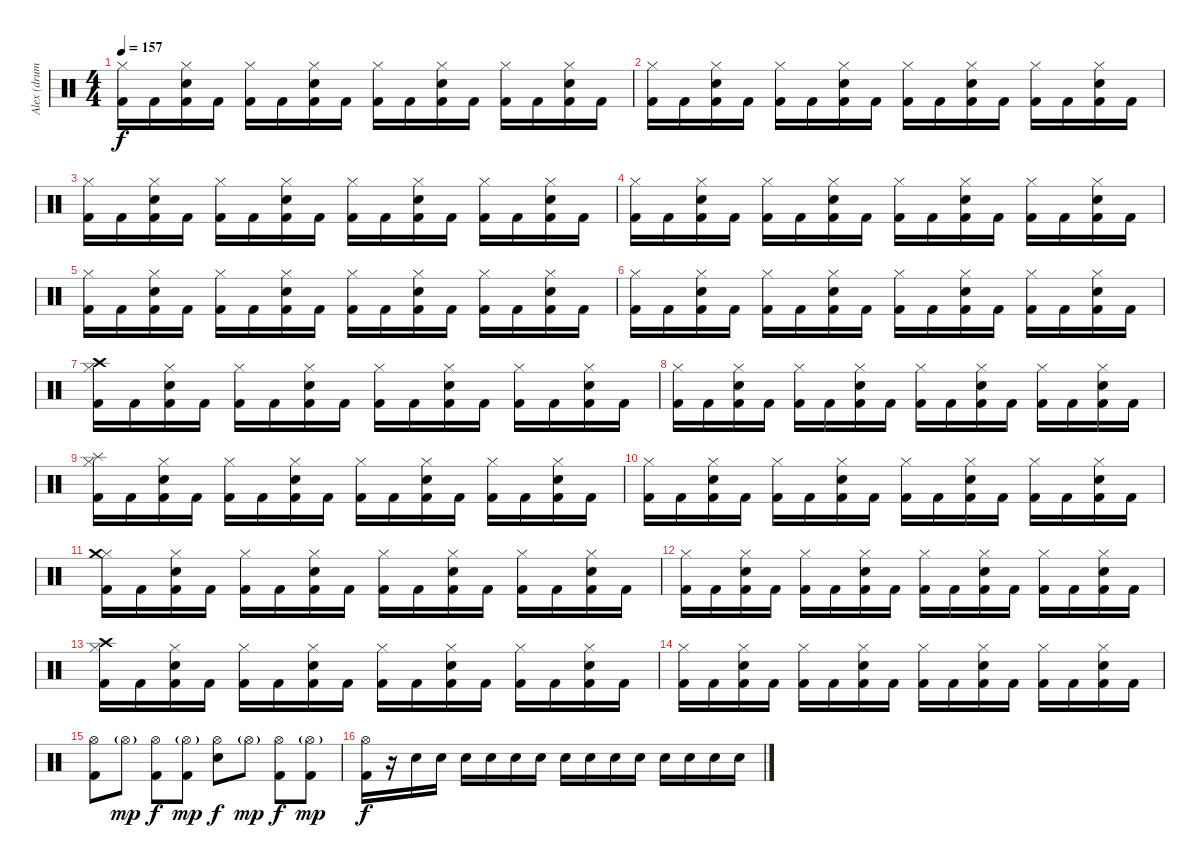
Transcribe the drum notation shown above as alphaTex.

\track ("Alex (drums)" "Alex (drum") {instrument percussion}
\staff {score}
\articulation defaults
\ts (4 4)
\tempo 157
\clef neutral
\ks c
("Hi-Hat (closed)" "Kick (hit) 2").16{dy f} "Kick (hit) 2".16 ("Hi-Hat (closed)" "Snare (hit) 2" "Kick (hit) 2").16 "Kick (hit) 2".16 ("Hi-Hat (closed)" "Kick (hit) 2").16 "Kick (hit) 2".16 ("Hi-Hat (closed)" "Snare (hit) 2" "Kick (hit) 2").16 "Kick (hit) 2".16 ("Hi-Hat (closed)" "Kick (hit) 2").16 "Kick (hit) 2".16 ("Hi-Hat (closed)" "Snare (hit) 2" "Kick (hit) 2").16 "Kick (hit) 2".16 ("Hi-Hat (closed)" "Kick (hit) 2").16 "Kick (hit) 2".16 ("Hi-Hat (closed)" "Snare (hit) 2" "Kick (hit) 2").16 "Kick (hit) 2".16 |
("Hi-Hat (closed)" "Kick (hit) 2").16 "Kick (hit) 2".16 ("Hi-Hat (closed)" "Snare (hit) 2" "Kick (hit) 2").16 "Kick (hit) 2".16 ("Hi-Hat (closed)" "Kick (hit) 2").16 "Kick (hit) 2".16 ("Hi-Hat (closed)" "Snare (hit) 2" "Kick (hit) 2").16 "Kick (hit) 2".16 ("Hi-Hat (closed)" "Kick (hit) 2").16 "Kick (hit) 2".16 ("Hi-Hat (closed)" "Snare (hit) 2" "Kick (hit) 2").16 "Kick (hit) 2".16 ("Hi-Hat (closed)" "Kick (hit) 2").16 "Kick (hit) 2".16 ("Hi-Hat (closed)" "Snare (hit) 2" "Kick (hit) 2").16 "Kick (hit) 2".16 |
("Hi-Hat (closed)" "Kick (hit) 2").16 "Kick (hit) 2".16 ("Hi-Hat (closed)" "Snare (hit) 2" "Kick (hit) 2").16 "Kick (hit) 2".16 ("Hi-Hat (closed)" "Kick (hit) 2").16 "Kick (hit) 2".16 ("Hi-Hat (closed)" "Snare (hit) 2" "Kick (hit) 2").16 "Kick (hit) 2".16 ("Hi-Hat (closed)" "Kick (hit) 2").16 "Kick (hit) 2".16 ("Hi-Hat (closed)" "Snare (hit) 2" "Kick (hit) 2").16 "Kick (hit) 2".16 ("Hi-Hat (closed)" "Kick (hit) 2").16 "Kick (hit) 2".16 ("Hi-Hat (closed)" "Snare (hit) 2" "Kick (hit) 2").16 "Kick (hit) 2".16 |
("Hi-Hat (closed)" "Kick (hit) 2").16 "Kick (hit) 2".16 ("Hi-Hat (closed)" "Snare (hit) 2" "Kick (hit) 2").16 "Kick (hit) 2".16 ("Hi-Hat (closed)" "Kick (hit) 2").16 "Kick (hit) 2".16 ("Hi-Hat (closed)" "Snare (hit) 2" "Kick (hit) 2").16 "Kick (hit) 2".16 ("Hi-Hat (closed)" "Kick (hit) 2").16 "Kick (hit) 2".16 ("Hi-Hat (closed)" "Snare (hit) 2" "Kick (hit) 2").16 "Kick (hit) 2".16 ("Hi-Hat (closed)" "Kick (hit) 2").16 "Kick (hit) 2".16 ("Hi-Hat (closed)" "Snare (hit) 2" "Kick (hit) 2").16 "Kick (hit) 2".16 |
("Hi-Hat (closed)" "Kick (hit) 2").16 "Kick (hit) 2".16 ("Hi-Hat (closed)" "Snare (hit) 2" "Kick (hit) 2").16 "Kick (hit) 2".16 ("Hi-Hat (closed)" "Kick (hit) 2").16 "Kick (hit) 2".16 ("Hi-Hat (closed)" "Snare (hit) 2" "Kick (hit) 2").16 "Kick (hit) 2".16 ("Hi-Hat (closed)" "Kick (hit) 2").16 "Kick (hit) 2".16 ("Hi-Hat (closed)" "Snare (hit) 2" "Kick (hit) 2").16 "Kick (hit) 2".16 ("Hi-Hat (closed)" "Kick (hit) 2").16 "Kick (hit) 2".16 ("Hi-Hat (closed)" "Snare (hit) 2" "Kick (hit) 2").16 "Kick (hit) 2".16 |
("Hi-Hat (closed)" "Kick (hit) 2").16 "Kick (hit) 2".16 ("Hi-Hat (closed)" "Snare (hit) 2" "Kick (hit) 2").16 "Kick (hit) 2".16 ("Hi-Hat (closed)" "Kick (hit) 2").16 "Kick (hit) 2".16 ("Hi-Hat (closed)" "Snare (hit) 2" "Kick (hit) 2").16 "Kick (hit) 2".16 ("Hi-Hat (closed)" "Kick (hit) 2").16 "Kick (hit) 2".16 ("Hi-Hat (closed)" "Snare (hit) 2" "Kick (hit) 2").16 "Kick (hit) 2".16 ("Hi-Hat (closed)" "Kick (hit) 2").16 "Kick (hit) 2".16 ("Hi-Hat (closed)" "Snare (hit) 2" "Kick (hit) 2").16 "Kick (hit) 2".16 |
("Hi-Hat (closed)" "Kick (hit) 2" "Crash high (hit)").16 "Kick (hit) 2".16 ("Hi-Hat (closed)" "Snare (hit) 2" "Kick (hit) 2").16 "Kick (hit) 2".16 ("Hi-Hat (closed)" "Kick (hit) 2").16 "Kick (hit) 2".16 ("Hi-Hat (closed)" "Snare (hit) 2" "Kick (hit) 2").16 "Kick (hit) 2".16 ("Hi-Hat (closed)" "Kick (hit) 2").16 "Kick (hit) 2".16 ("Hi-Hat (closed)" "Snare (hit) 2" "Kick (hit) 2").16 "Kick (hit) 2".16 ("Hi-Hat (closed)" "Kick (hit) 2").16 "Kick (hit) 2".16 ("Hi-Hat (closed)" "Snare (hit) 2" "Kick (hit) 2").16 "Kick (hit) 2".16 |
("Hi-Hat (closed)" "Kick (hit) 2").16 "Kick (hit) 2".16 ("Hi-Hat (closed)" "Snare (hit) 2" "Kick (hit) 2").16 "Kick (hit) 2".16 ("Hi-Hat (closed)" "Kick (hit) 2").16 "Kick (hit) 2".16 ("Hi-Hat (closed)" "Snare (hit) 2" "Kick (hit) 2").16 "Kick (hit) 2".16 ("Hi-Hat (closed)" "Kick (hit) 2").16 "Kick (hit) 2".16 ("Hi-Hat (closed)" "Snare (hit) 2" "Kick (hit) 2").16 "Kick (hit) 2".16 ("Hi-Hat (closed)" "Kick (hit) 2").16 "Kick (hit) 2".16 ("Hi-Hat (closed)" "Snare (hit) 2" "Kick (hit) 2").16 "Kick (hit) 2".16 |
("Hi-Hat (closed)" "Kick (hit) 2" "Splash (hit)").16 "Kick (hit) 2".16 ("Hi-Hat (closed)" "Snare (hit) 2" "Kick (hit) 2").16 "Kick (hit) 2".16 ("Hi-Hat (closed)" "Kick (hit) 2").16 "Kick (hit) 2".16 ("Hi-Hat (closed)" "Snare (hit) 2" "Kick (hit) 2").16 "Kick (hit) 2".16 ("Hi-Hat (closed)" "Kick (hit) 2").16 "Kick (hit) 2".16 ("Hi-Hat (closed)" "Snare (hit) 2" "Kick (hit) 2").16 "Kick (hit) 2".16 ("Hi-Hat (closed)" "Kick (hit) 2").16 "Kick (hit) 2".16 ("Hi-Hat (closed)" "Snare (hit) 2" "Kick (hit) 2").16 "Kick (hit) 2".16 |
("Hi-Hat (closed)" "Kick (hit) 2").16 "Kick (hit) 2".16 ("Hi-Hat (closed)" "Snare (hit) 2" "Kick (hit) 2").16 "Kick (hit) 2".16 ("Hi-Hat (closed)" "Kick (hit) 2").16 "Kick (hit) 2".16 ("Hi-Hat (closed)" "Snare (hit) 2" "Kick (hit) 2").16 "Kick (hit) 2".16 ("Hi-Hat (closed)" "Kick (hit) 2").16 "Kick (hit) 2".16 ("Hi-Hat (closed)" "Snare (hit) 2" "Kick (hit) 2").16 "Kick (hit) 2".16 ("Hi-Hat (closed)" "Kick (hit) 2").16 "Kick (hit) 2".16 ("Hi-Hat (closed)" "Snare (hit) 2" "Kick (hit) 2").16 "Kick (hit) 2".16 |
("Hi-Hat (closed)" "Kick (hit) 2" "Crash medium (hit)").16 "Kick (hit) 2".16 ("Hi-Hat (closed)" "Snare (hit) 2" "Kick (hit) 2").16 "Kick (hit) 2".16 ("Hi-Hat (closed)" "Kick (hit) 2").16 "Kick (hit) 2".16 ("Hi-Hat (closed)" "Snare (hit) 2" "Kick (hit) 2").16 "Kick (hit) 2".16 ("Hi-Hat (closed)" "Kick (hit) 2").16 "Kick (hit) 2".16 ("Hi-Hat (closed)" "Snare (hit) 2" "Kick (hit) 2").16 "Kick (hit) 2".16 ("Hi-Hat (closed)" "Kick (hit) 2").16 "Kick (hit) 2".16 ("Hi-Hat (closed)" "Snare (hit) 2" "Kick (hit) 2").16 "Kick (hit) 2".16 |
("Hi-Hat (closed)" "Kick (hit) 2").16 "Kick (hit) 2".16 ("Hi-Hat (closed)" "Snare (hit) 2" "Kick (hit) 2").16 "Kick (hit) 2".16 ("Hi-Hat (closed)" "Kick (hit) 2").16 "Kick (hit) 2".16 ("Hi-Hat (closed)" "Snare (hit) 2" "Kick (hit) 2").16 "Kick (hit) 2".16 ("Hi-Hat (closed)" "Kick (hit) 2").16 "Kick (hit) 2".16 ("Hi-Hat (closed)" "Snare (hit) 2" "Kick (hit) 2").16 "Kick (hit) 2".16 ("Hi-Hat (closed)" "Kick (hit) 2").16 "Kick (hit) 2".16 ("Hi-Hat (closed)" "Snare (hit) 2" "Kick (hit) 2").16 "Kick (hit) 2".16 |
("Hi-Hat (closed)" "Kick (hit) 2" "Crash high (hit)").16 "Kick (hit) 2".16 ("Hi-Hat (closed)" "Snare (hit) 2" "Kick (hit) 2").16 "Kick (hit) 2".16 ("Hi-Hat (closed)" "Kick (hit) 2").16 "Kick (hit) 2".16 ("Hi-Hat (closed)" "Snare (hit) 2" "Kick (hit) 2").16 "Kick (hit) 2".16 ("Hi-Hat (closed)" "Kick (hit) 2").16 "Kick (hit) 2".16 ("Hi-Hat (closed)" "Snare (hit) 2" "Kick (hit) 2").16 "Kick (hit) 2".16 ("Hi-Hat (closed)" "Kick (hit) 2").16 "Kick (hit) 2".16 ("Hi-Hat (closed)" "Snare (hit) 2" "Kick (hit) 2").16 "Kick (hit) 2".16 |
("Hi-Hat (closed)" "Kick (hit) 2").16 "Kick (hit) 2".16 ("Hi-Hat (closed)" "Snare (hit) 2" "Kick (hit) 2").16 "Kick (hit) 2".16 ("Hi-Hat (closed)" "Kick (hit) 2").16 "Kick (hit) 2".16 ("Hi-Hat (closed)" "Snare (hit) 2" "Kick (hit) 2").16 "Kick (hit) 2".16 ("Hi-Hat (closed)" "Kick (hit) 2").16 "Kick (hit) 2".16 ("Hi-Hat (closed)" "Snare (hit) 2" "Kick (hit) 2").16 "Kick (hit) 2".16 ("Hi-Hat (closed)" "Kick (hit) 2").16 "Kick (hit) 2".16 ("Hi-Hat (closed)" "Snare (hit) 2" "Kick (hit) 2").16 "Kick (hit) 2".16 |
("Hi-Hat (open)" "Kick (hit) 2").8 "Hi-Hat (open)"{g}.8{dy mp} ("Hi-Hat (open)" "Kick (hit) 2").8{dy f} ("Hi-Hat (open)"{g} "Kick (hit) 2").8{dy mp} ("Hi-Hat (open)" "Snare (hit) 2").8{dy f} "Hi-Hat (open)"{g}.8{dy mp} ("Hi-Hat (open)" "Kick (hit) 2").8{dy f} ("Hi-Hat (open)"{g} "Kick (hit) 2").8{dy mp} |
("Hi-Hat (open)" "Kick (hit) 2").16{dy f} r.16 "Snare (hit) 2".16 "Snare (hit) 2".16 "Snare (hit) 2".16 "Snare (hit) 2".16 "Snare (hit) 2".16 "Snare (hit) 2".16 "Snare (hit) 2".16 "Snare (hit) 2".16 "Snare (hit) 2".16 "Snare (hit) 2".16 "Snare (hit) 2".16 "Snare (hit) 2".16 "Snare (hit) 2".16 "Snare (hit) 2".16
